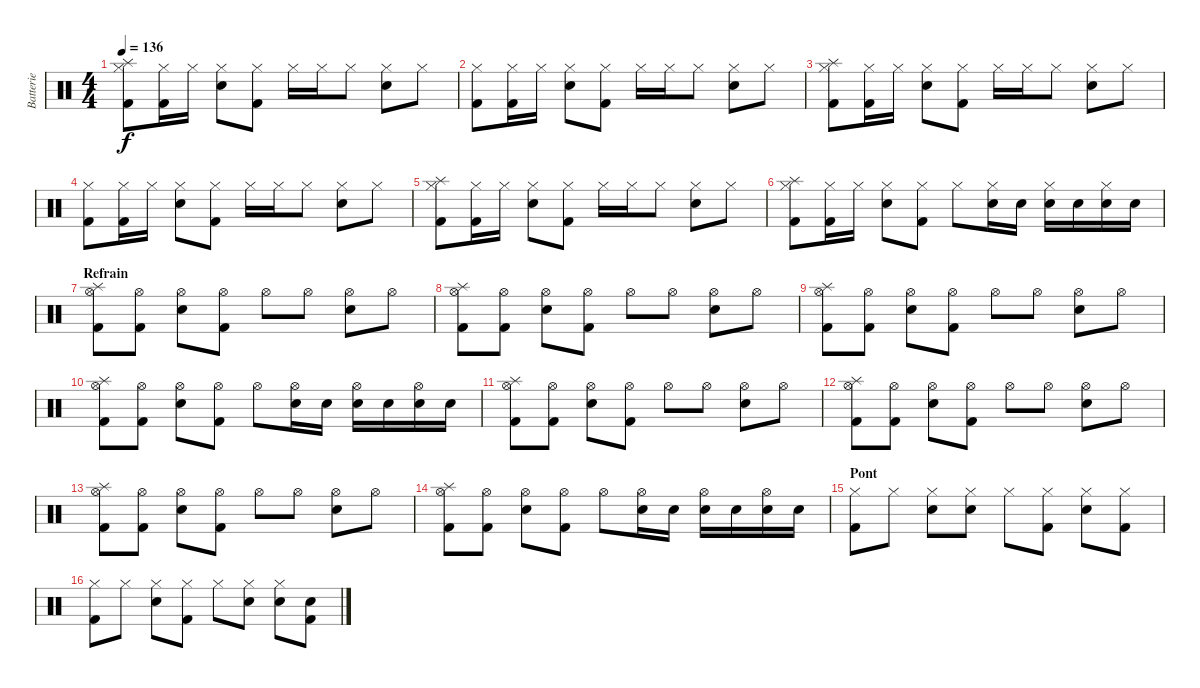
\track ("Batterie" "Batterie") {instrument percussion}
\staff {score}
\articulation defaults
\ts (4 4)
\tempo 136
\clef neutral
\ks c
("Splash (hit)" "Hi-Hat (closed)" "Kick (hit) 2").8{dy f} ("Hi-Hat (closed)" "Kick (hit) 2").16 "Hi-Hat (closed)".16 ("Hi-Hat (closed)" "Snare (hit) 2").8 ("Hi-Hat (closed)" "Kick (hit) 2").8 "Hi-Hat (closed)".16 "Hi-Hat (closed)".16 "Hi-Hat (closed)".8 ("Hi-Hat (closed)" "Snare (hit) 2").8 "Hi-Hat (closed)".8 |
("Hi-Hat (closed)" "Kick (hit) 2").8 ("Hi-Hat (closed)" "Kick (hit) 2").16 "Hi-Hat (closed)".16 ("Hi-Hat (closed)" "Snare (hit) 2").8 ("Hi-Hat (closed)" "Kick (hit) 2").8 "Hi-Hat (closed)".16 "Hi-Hat (closed)".16 "Hi-Hat (closed)".8 ("Hi-Hat (closed)" "Snare (hit) 2").8 "Hi-Hat (closed)".8 |
("Splash (hit)" "Hi-Hat (closed)" "Kick (hit) 2").8 ("Hi-Hat (closed)" "Kick (hit) 2").16 "Hi-Hat (closed)".16 ("Hi-Hat (closed)" "Snare (hit) 2").8 ("Hi-Hat (closed)" "Kick (hit) 2").8 "Hi-Hat (closed)".16 "Hi-Hat (closed)".16 "Hi-Hat (closed)".8 ("Hi-Hat (closed)" "Snare (hit) 2").8 "Hi-Hat (closed)".8 |
("Hi-Hat (closed)" "Kick (hit) 2").8 ("Hi-Hat (closed)" "Kick (hit) 2").16 "Hi-Hat (closed)".16 ("Hi-Hat (closed)" "Snare (hit) 2").8 ("Hi-Hat (closed)" "Kick (hit) 2").8 "Hi-Hat (closed)".16 "Hi-Hat (closed)".16 "Hi-Hat (closed)".8 ("Hi-Hat (closed)" "Snare (hit) 2").8 "Hi-Hat (closed)".8 |
("Splash (hit)" "Hi-Hat (closed)" "Kick (hit) 2").8 ("Hi-Hat (closed)" "Kick (hit) 2").16 "Hi-Hat (closed)".16 ("Hi-Hat (closed)" "Snare (hit) 2").8 ("Hi-Hat (closed)" "Kick (hit) 2").8 "Hi-Hat (closed)".16 "Hi-Hat (closed)".16 "Hi-Hat (closed)".8 ("Hi-Hat (closed)" "Snare (hit) 2").8 "Hi-Hat (closed)".8 |
("Splash (hit)" "Hi-Hat (closed)" "Kick (hit) 2").8 ("Hi-Hat (closed)" "Kick (hit) 2").16 "Hi-Hat (closed)".16 ("Hi-Hat (closed)" "Snare (hit) 2").8 ("Hi-Hat (closed)" "Kick (hit) 2").8 "Hi-Hat (closed)".8 ("Hi-Hat (closed)" "Snare (hit) 2").16 "Snare (hit) 2".16 ("Hi-Hat (closed)" "Snare (hit) 2").16 "Snare (hit) 2".16 ("Hi-Hat (closed)" "Snare (hit) 2").16 "Snare (hit) 2".16 |
\section ("" "Refrain")
("Splash (hit)" "Hi-Hat (open)" "Kick (hit) 2").8 ("Hi-Hat (open)" "Kick (hit) 2").8 ("Hi-Hat (open)" "Snare (hit) 2").8 ("Hi-Hat (open)" "Kick (hit) 2").8 "Hi-Hat (open)".8 "Hi-Hat (open)".8 ("Hi-Hat (open)" "Snare (hit) 2").8 "Hi-Hat (open)".8 |
("Splash (hit)" "Hi-Hat (open)" "Kick (hit) 2").8 ("Hi-Hat (open)" "Kick (hit) 2").8 ("Hi-Hat (open)" "Snare (hit) 2").8 ("Hi-Hat (open)" "Kick (hit) 2").8 "Hi-Hat (open)".8 "Hi-Hat (open)".8 ("Hi-Hat (open)" "Snare (hit) 2").8 "Hi-Hat (open)".8 |
("Splash (hit)" "Hi-Hat (open)" "Kick (hit) 2").8 ("Hi-Hat (open)" "Kick (hit) 2").8 ("Hi-Hat (open)" "Snare (hit) 2").8 ("Hi-Hat (open)" "Kick (hit) 2").8 "Hi-Hat (open)".8 "Hi-Hat (open)".8 ("Hi-Hat (open)" "Snare (hit) 2").8 "Hi-Hat (open)".8 |
("Splash (hit)" "Hi-Hat (open)" "Kick (hit) 2").8 ("Hi-Hat (open)" "Kick (hit) 2").8 ("Hi-Hat (open)" "Snare (hit) 2").8 ("Hi-Hat (open)" "Kick (hit) 2").8 "Hi-Hat (open)".8 ("Hi-Hat (open)" "Snare (hit) 2").16 "Snare (hit) 2".16 ("Hi-Hat (open)" "Snare (hit) 2").16 "Snare (hit) 2".16 ("Hi-Hat (open)" "Snare (hit) 2").16 "Snare (hit) 2".16 |
("Splash (hit)" "Hi-Hat (open)" "Kick (hit) 2").8 ("Hi-Hat (open)" "Kick (hit) 2").8 ("Hi-Hat (open)" "Snare (hit) 2").8 ("Hi-Hat (open)" "Kick (hit) 2").8 "Hi-Hat (open)".8 "Hi-Hat (open)".8 ("Hi-Hat (open)" "Snare (hit) 2").8 "Hi-Hat (open)".8 |
("Splash (hit)" "Hi-Hat (open)" "Kick (hit) 2").8 ("Hi-Hat (open)" "Kick (hit) 2").8 ("Hi-Hat (open)" "Snare (hit) 2").8 ("Hi-Hat (open)" "Kick (hit) 2").8 "Hi-Hat (open)".8 "Hi-Hat (open)".8 ("Hi-Hat (open)" "Snare (hit) 2").8 "Hi-Hat (open)".8 |
("Splash (hit)" "Hi-Hat (open)" "Kick (hit) 2").8 ("Hi-Hat (open)" "Kick (hit) 2").8 ("Hi-Hat (open)" "Snare (hit) 2").8 ("Hi-Hat (open)" "Kick (hit) 2").8 "Hi-Hat (open)".8 "Hi-Hat (open)".8 ("Hi-Hat (open)" "Snare (hit) 2").8 "Hi-Hat (open)".8 |
("Splash (hit)" "Hi-Hat (open)" "Kick (hit) 2").8 ("Hi-Hat (open)" "Kick (hit) 2").8 ("Hi-Hat (open)" "Snare (hit) 2").8 ("Hi-Hat (open)" "Kick (hit) 2").8 "Hi-Hat (open)".8 ("Hi-Hat (open)" "Snare (hit) 2").16 "Snare (hit) 2".16 ("Hi-Hat (open)" "Snare (hit) 2").16 "Snare (hit) 2".16 ("Hi-Hat (open)" "Snare (hit) 2").16 "Snare (hit) 2".16 |
\section ("" "Pont")
("Hi-Hat (closed)" "Kick (hit) 2").8 "Hi-Hat (closed)".8 ("Hi-Hat (closed)" "Snare (hit) 2").8 ("Hi-Hat (closed)" "Snare (hit) 2").8 "Hi-Hat (closed)".8 ("Hi-Hat (closed)" "Kick (hit) 2").8 ("Hi-Hat (closed)" "Snare (hit) 2").8 ("Hi-Hat (closed)" "Kick (hit) 2").8 |
("Hi-Hat (closed)" "Kick (hit) 2").8 "Hi-Hat (closed)".8 ("Hi-Hat (closed)" "Snare (hit) 2").8 ("Hi-Hat (closed)" "Kick (hit) 2").8 "Hi-Hat (closed)".8 ("Hi-Hat (closed)" "Snare (hit) 2").8 ("Hi-Hat (closed)" "Snare (hit) 2").8 ("Snare (hit)" "Kick (hit) 2").8
